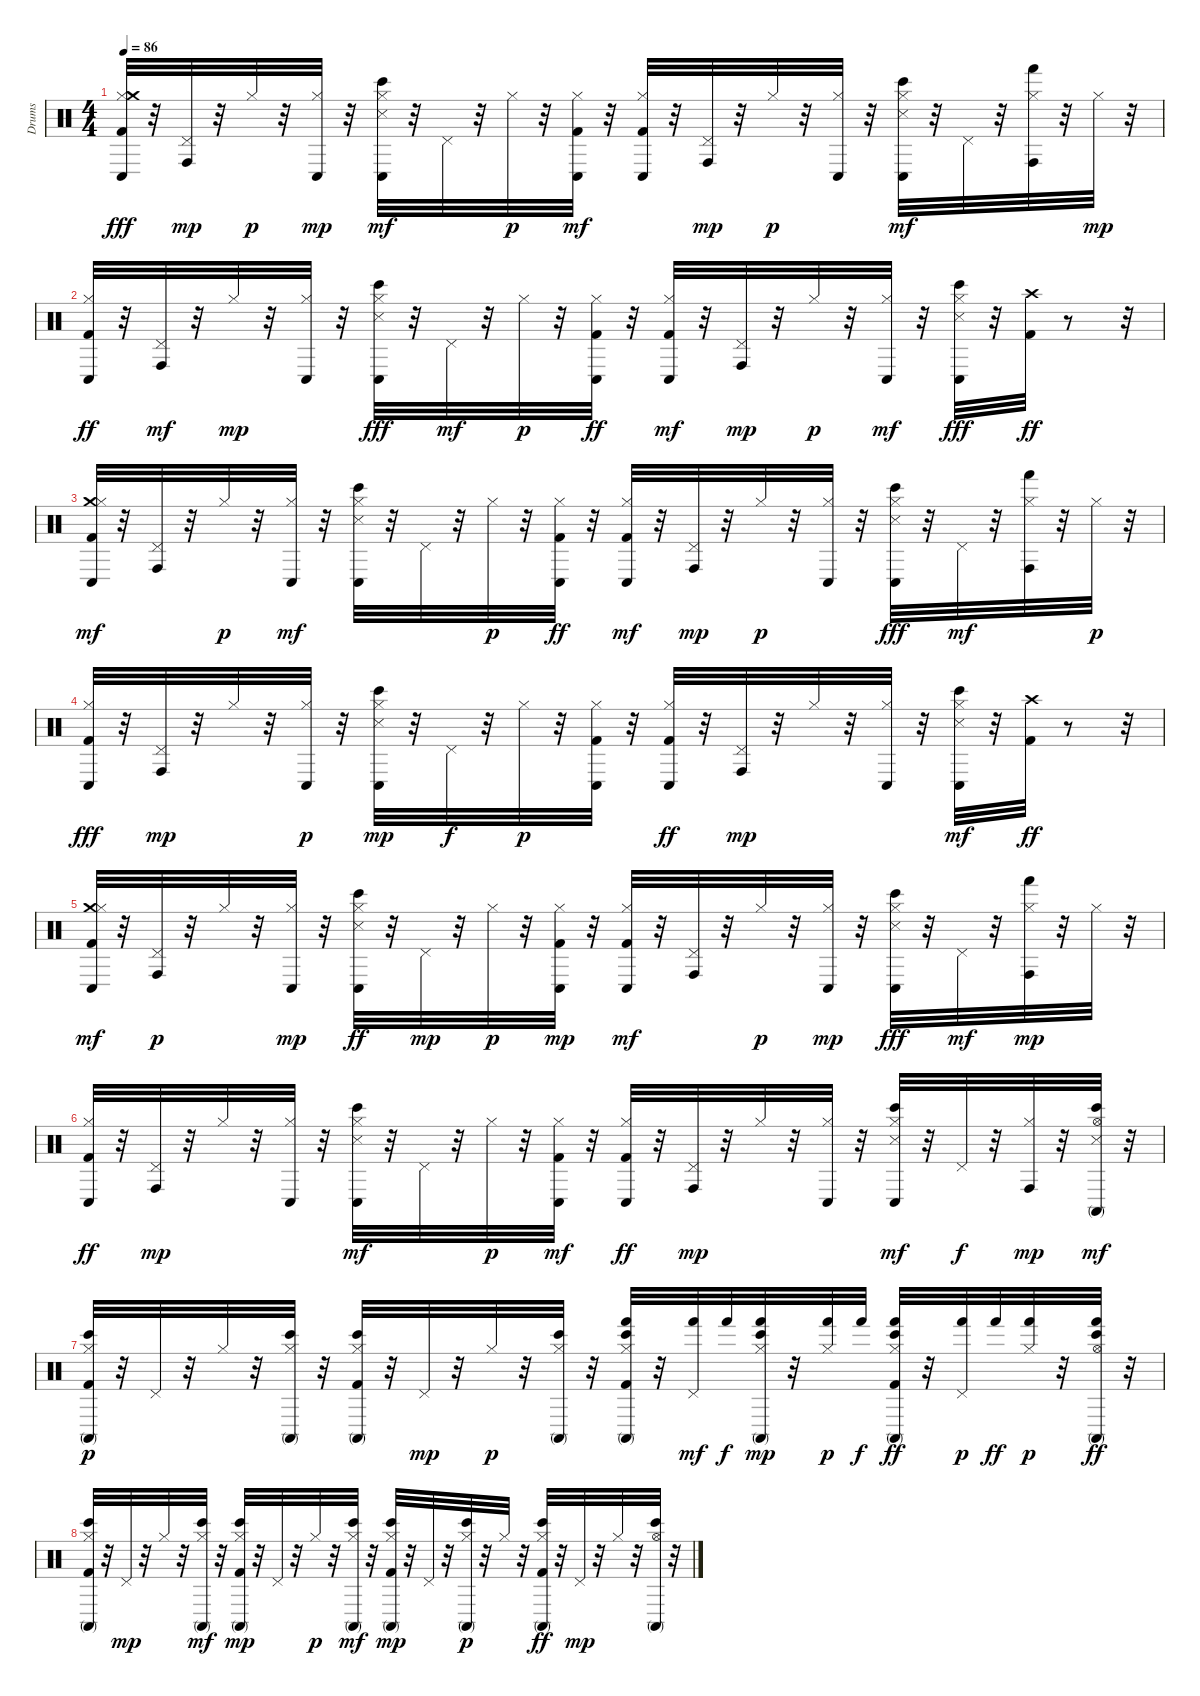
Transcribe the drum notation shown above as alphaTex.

\track ("Drums" "Drums") {instrument percussion}
\staff {score}
\articulation defaults
\ts (4 4)
\tempo 86
\clef neutral
\ks c
("Hi-Hat (closed)" "Conga low (hit)" "Crash medium (hit)" "Kick (hit) 2").32{dy fff} r.32 ("Pedal Hi-Hat (hit)" "Conga high (hit)").32{dy mp} r.32 "Hi-Hat (closed)".32{dy p} r.32 ("Conga low (hit)" "Hi-Hat (closed)").32{dy mp} r.32 ("Hi-Hat (closed)" "Snare (side stick) 3" "Bongo High (hit)" "Conga low (hit)").32{dy mf} r.32 "Pedal Hi-Hat (hit)".32 r.32 "Hi-Hat (closed)".32{dy p} r.32 ("Hi-Hat (closed)" "Conga low (hit)" "Kick (hit) 2").32{dy mf} r.32 ("Kick (hit) 2" "Hi-Hat (closed)" "Conga low (hit)").32 r.32 ("Pedal Hi-Hat (hit)" "Conga high (hit)").32{dy mp} r.32 "Hi-Hat (closed)".32{dy p} r.32 ("Conga low (hit)" "Hi-Hat (closed)").32 r.32 ("Snare (side stick) 3" "Hi-Hat (closed)" "Conga low (hit)" "Bongo High (hit)").32{dy mf} r.32 "Pedal Hi-Hat (hit)".32 r.32 ("Conga high (hit)" "Hi-Hat (closed)" "Hand (hit)").32 r.32 "Hi-Hat (closed)".32{dy mp} r.32 |
("Kick (hit) 2" "Conga low (hit)" "Hi-Hat (closed)").32{dy ff} r.32 ("Pedal Hi-Hat (hit)" "Conga high (hit)").32{dy mf} r.32 "Hi-Hat (closed)".32{dy mp} r.32 ("Conga low (hit)" "Hi-Hat (closed)").32 r.32 ("Conga low (hit)" "Bongo High (hit)" "Hi-Hat (closed)" "Snare (side stick) 3").32{dy fff} r.32 "Pedal Hi-Hat (hit)".32{dy mf} r.32 "Hi-Hat (closed)".32{dy p} r.32 ("Conga low (hit)" "Hi-Hat (closed)" "Kick (hit) 2").32{dy ff} r.32 ("Hi-Hat (closed)" "Kick (hit) 2" "Conga low (hit)").32{dy mf} r.32 ("Conga high (hit)" "Pedal Hi-Hat (hit)").32{dy mp} r.32 "Hi-Hat (closed)".32{dy p} r.32 ("Hi-Hat (closed)" "Conga low (hit)").32{dy mf} r.32 ("Bongo High (hit)" "Conga low (hit)" "Snare (side stick) 3" "Hi-Hat (closed)").32{dy fff} r.32 ("Crash high (hit)" "Kick (hit) 2").32{dy ff} r.8 r.32 |
("Crash medium (hit)" "Kick (hit) 2" "Hi-Hat (closed)" "Conga low (hit)").32{dy mf} r.32 ("Pedal Hi-Hat (hit)" "Conga high (hit)").32 r.32 "Hi-Hat (closed)".32{dy p} r.32 ("Hi-Hat (closed)" "Conga low (hit)").32{dy mf} r.32 ("Snare (side stick) 3" "Conga low (hit)" "Bongo High (hit)" "Hi-Hat (closed)").32 r.32 "Pedal Hi-Hat (hit)".32 r.32 "Hi-Hat (closed)".32{dy p} r.32 ("Hi-Hat (closed)" "Conga low (hit)" "Kick (hit) 2").32{dy ff} r.32 ("Hi-Hat (closed)" "Kick (hit) 2" "Conga low (hit)").32{dy mf} r.32 ("Conga high (hit)" "Pedal Hi-Hat (hit)").32{dy mp} r.32 "Hi-Hat (closed)".32{dy p} r.32 ("Conga low (hit)" "Hi-Hat (closed)").32 r.32 ("Conga low (hit)" "Bongo High (hit)" "Hi-Hat (closed)" "Snare (side stick) 3").32{dy fff} r.32 "Pedal Hi-Hat (hit)".32{dy mf} r.32 ("Conga high (hit)" "Hi-Hat (closed)" "Hand (hit)").32 r.32 "Hi-Hat (closed)".32{dy p} r.32 |
("Hi-Hat (closed)" "Conga low (hit)" "Kick (hit) 2").32{dy fff} r.32 ("Pedal Hi-Hat (hit)" "Conga high (hit)").32{dy mp} r.32 "Hi-Hat (closed)".32 r.32 ("Conga low (hit)" "Hi-Hat (closed)").32{dy p} r.32 ("Conga low (hit)" "Snare (side stick) 3" "Hi-Hat (closed)" "Bongo High (hit)").32{dy mp} r.32 "Pedal Hi-Hat (hit)".32{dy f} r.32 "Hi-Hat (closed)".32{dy p} r.32 ("Conga low (hit)" "Kick (hit) 2" "Hi-Hat (closed)").32 r.32 ("Conga low (hit)" "Kick (hit) 2" "Hi-Hat (closed)").32{dy ff} r.32 ("Pedal Hi-Hat (hit)" "Conga high (hit)").32{dy mp} r.32 "Hi-Hat (closed)".32 r.32 ("Conga low (hit)" "Hi-Hat (closed)").32 r.32 ("Bongo High (hit)" "Snare (side stick) 3" "Hi-Hat (closed)" "Conga low (hit)").32{dy mf} r.32 ("Crash high (hit)" "Kick (hit) 2").32{dy ff} r.8 r.32 |
("Crash medium (hit)" "Hi-Hat (closed)" "Kick (hit) 2" "Conga low (hit)").32{dy mf} r.32 ("Conga high (hit)" "Pedal Hi-Hat (hit)").32{dy p} r.32 "Hi-Hat (closed)".32 r.32 ("Conga low (hit)" "Hi-Hat (closed)").32{dy mp} r.32 ("Snare (side stick) 3" "Bongo High (hit)" "Conga low (hit)" "Hi-Hat (closed)").32{dy ff} r.32 "Pedal Hi-Hat (hit)".32{dy mp} r.32 "Hi-Hat (closed)".32{dy p} r.32 ("Conga low (hit)" "Kick (hit) 2" "Hi-Hat (closed)").32{dy mp} r.32 ("Kick (hit) 2" "Conga low (hit)" "Hi-Hat (closed)").32{dy mf} r.32 ("Conga high (hit)" "Pedal Hi-Hat (hit)").32 r.32 "Hi-Hat (closed)".32{dy p} r.32 ("Conga low (hit)" "Hi-Hat (closed)").32{dy mp} r.32 ("Conga low (hit)" "Bongo High (hit)" "Snare (side stick) 3" "Hi-Hat (closed)").32{dy fff} r.32 "Pedal Hi-Hat (hit)".32{dy mf} r.32 ("Conga high (hit)" "Hand (hit)" "Hi-Hat (closed)").32{dy mp} r.32 "Hi-Hat (closed)".32 r.32 |
("Conga low (hit)" "Kick (hit) 2" "Hi-Hat (closed)").32{dy ff} r.32 ("Conga high (hit)" "Pedal Hi-Hat (hit)").32{dy mp} r.32 "Hi-Hat (closed)".32 r.32 ("Conga low (hit)" "Hi-Hat (closed)").32 r.32 ("Conga low (hit)" "Snare (side stick) 3" "Hi-Hat (closed)" "Bongo High (hit)").32{dy mf} r.32 "Pedal Hi-Hat (hit)".32 r.32 "Hi-Hat (closed)".32{dy p} r.32 ("Kick (hit) 2" "Conga low (hit)" "Hi-Hat (closed)").32{dy mf} r.32 ("Conga low (hit)" "Kick (hit) 2" "Hi-Hat (closed)").32{dy ff} r.32 ("Conga high (hit)" "Pedal Hi-Hat (hit)").32{dy mp} r.32 "Hi-Hat (closed)".32 r.32 ("Conga low (hit)" "Hi-Hat (closed)").32 r.32 ("Snare (side stick) 3" "Conga low (hit)" "Bongo High (hit)" "Hi-Hat (closed)").32{dy mf} r.32 "Pedal Hi-Hat (hit)".32{dy f} r.32 ("Conga high (hit)" "Hi-Hat (closed)").32{dy mp} r.32 ("Snare (side stick) 3" "Hi-Hat (open)" "Conga high (mute)" "Bongo High (hit)").32{dy mf} r.32 |
("Conga high (mute)" "Bongo High (hit)" "Kick (hit) 2" "Hi-Hat (closed)").32{dy p} r.32 "Pedal Hi-Hat (hit)".32 r.32 "Hi-Hat (closed)".32 r.32 ("Conga high (mute)" "Bongo High (hit)" "Hi-Hat (closed)").32 r.32 ("Conga high (mute)" "Hi-Hat (closed)" "Kick (hit) 2" "Bongo High (hit)").32 r.32 "Pedal Hi-Hat (hit)".32{dy mp} r.32 "Hi-Hat (closed)".32{dy p} r.32 ("Bongo High (hit)" "Conga high (mute)" "Hi-Hat (closed)").32 r.32 ("Conga high (mute)" "Hi-Hat (closed)" "Bongo High (hit)" "Kick (hit) 2" "Hand (hit)").32 r.32 ("Pedal Hi-Hat (hit)" "Hand (hit)").32{dy mf} "Hand (hit)".32{dy f} ("Hi-Hat (closed)" "Conga high (mute)" "Bongo High (hit)" "Hand (hit)").32{dy mp} r.32 ("Hi-Hat (closed)" "Hand (hit)").32{dy p} "Hand (hit)".32{dy f} ("Bongo High (hit)" "Conga high (mute)" "Hi-Hat (closed)" "Hand (hit)" "Kick (hit) 2").32{dy ff} r.32 ("Pedal Hi-Hat (hit)" "Hand (hit)").32{dy p} "Hand (hit)".32{dy ff} ("Hi-Hat (closed)" "Hand (hit)").32{dy p} r.32 ("Conga high (mute)" "Bongo High (hit)" "Hi-Hat (open)" "Hand (hit)").32{dy ff} r.32 |
("Bongo High (hit)" "Hi-Hat (closed)" "Conga high (mute)" "Kick (hit) 2").32 r.32 "Pedal Hi-Hat (hit)".32{dy mp} r.32 "Hi-Hat (closed)".32 r.32 ("Hi-Hat (closed)" "Conga high (mute)" "Bongo High (hit)").32{dy mf} r.32 ("Hi-Hat (closed)" "Bongo High (hit)" "Kick (hit) 2" "Conga high (mute)").32{dy mp} r.32 "Pedal Hi-Hat (hit)".32 r.32 "Hi-Hat (closed)".32{dy p} r.32 ("Hi-Hat (closed)" "Bongo High (hit)" "Conga high (mute)").32{dy mf} r.32 ("Bongo High (hit)" "Conga high (mute)" "Hi-Hat (closed)" "Kick (hit) 2").32{dy mp} r.32 "Pedal Hi-Hat (hit)".32 r.32 ("Bongo High (hit)" "Conga high (mute)" "Hi-Hat (closed)").32{dy p} r.32 "Hi-Hat (closed)".32 r.32 ("Bongo High (hit)" "Conga high (mute)" "Hi-Hat (closed)" "Kick (hit) 2").32{dy ff} r.32 "Pedal Hi-Hat (hit)".32{dy mp} r.32 "Hi-Hat (closed)".32 r.32 ("Conga high (mute)" "Bongo High (hit)" "Hi-Hat (open)").32 r.32
